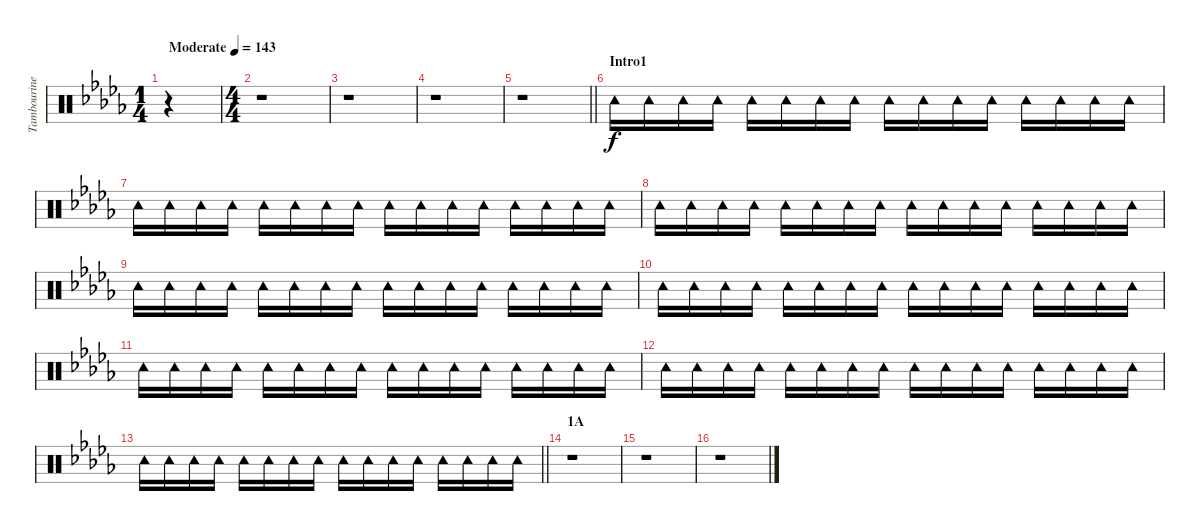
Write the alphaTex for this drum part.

\track ("Tambourine" "Tambourine") {instrument percussion}
\staff {score}
\articulation defaults
\ts (1 4)
\tempo (143 "Moderate")
\clef neutral
\ks db
r.4{dy f} |
\ts (4 4)
r.1 |
r.1 |
r.1 |
\barLineRight lightlight
r.1 |
\section ("" "Intro1")
"Tambourine (hit)".16 "Tambourine (hit)".16 "Tambourine (hit)".16 "Tambourine (hit)".16 "Tambourine (hit)".16 "Tambourine (hit)".16 "Tambourine (hit)".16 "Tambourine (hit)".16 "Tambourine (hit)".16 "Tambourine (hit)".16 "Tambourine (hit)".16 "Tambourine (hit)".16 "Tambourine (hit)".16 "Tambourine (hit)".16 "Tambourine (hit)".16 "Tambourine (hit)".16 |
"Tambourine (hit)".16 "Tambourine (hit)".16 "Tambourine (hit)".16 "Tambourine (hit)".16 "Tambourine (hit)".16 "Tambourine (hit)".16 "Tambourine (hit)".16 "Tambourine (hit)".16 "Tambourine (hit)".16 "Tambourine (hit)".16 "Tambourine (hit)".16 "Tambourine (hit)".16 "Tambourine (hit)".16 "Tambourine (hit)".16 "Tambourine (hit)".16 "Tambourine (hit)".16 |
"Tambourine (hit)".16 "Tambourine (hit)".16 "Tambourine (hit)".16 "Tambourine (hit)".16 "Tambourine (hit)".16 "Tambourine (hit)".16 "Tambourine (hit)".16 "Tambourine (hit)".16 "Tambourine (hit)".16 "Tambourine (hit)".16 "Tambourine (hit)".16 "Tambourine (hit)".16 "Tambourine (hit)".16 "Tambourine (hit)".16 "Tambourine (hit)".16 "Tambourine (hit)".16 |
"Tambourine (hit)".16 "Tambourine (hit)".16 "Tambourine (hit)".16 "Tambourine (hit)".16 "Tambourine (hit)".16 "Tambourine (hit)".16 "Tambourine (hit)".16 "Tambourine (hit)".16 "Tambourine (hit)".16 "Tambourine (hit)".16 "Tambourine (hit)".16 "Tambourine (hit)".16 "Tambourine (hit)".16 "Tambourine (hit)".16 "Tambourine (hit)".16 "Tambourine (hit)".16 |
"Tambourine (hit)".16 "Tambourine (hit)".16 "Tambourine (hit)".16 "Tambourine (hit)".16 "Tambourine (hit)".16 "Tambourine (hit)".16 "Tambourine (hit)".16 "Tambourine (hit)".16 "Tambourine (hit)".16 "Tambourine (hit)".16 "Tambourine (hit)".16 "Tambourine (hit)".16 "Tambourine (hit)".16 "Tambourine (hit)".16 "Tambourine (hit)".16 "Tambourine (hit)".16 |
"Tambourine (hit)".16 "Tambourine (hit)".16 "Tambourine (hit)".16 "Tambourine (hit)".16 "Tambourine (hit)".16 "Tambourine (hit)".16 "Tambourine (hit)".16 "Tambourine (hit)".16 "Tambourine (hit)".16 "Tambourine (hit)".16 "Tambourine (hit)".16 "Tambourine (hit)".16 "Tambourine (hit)".16 "Tambourine (hit)".16 "Tambourine (hit)".16 "Tambourine (hit)".16 |
"Tambourine (hit)".16 "Tambourine (hit)".16 "Tambourine (hit)".16 "Tambourine (hit)".16 "Tambourine (hit)".16 "Tambourine (hit)".16 "Tambourine (hit)".16 "Tambourine (hit)".16 "Tambourine (hit)".16 "Tambourine (hit)".16 "Tambourine (hit)".16 "Tambourine (hit)".16 "Tambourine (hit)".16 "Tambourine (hit)".16 "Tambourine (hit)".16 "Tambourine (hit)".16 |
\barLineRight lightlight "Tambourine (hit)".16 "Tambourine (hit)".16 "Tambourine (hit)".16 "Tambourine (hit)".16 "Tambourine (hit)".16 "Tambourine (hit)".16 "Tambourine (hit)".16 "Tambourine (hit)".16 "Tambourine (hit)".16 "Tambourine (hit)".16 "Tambourine (hit)".16 "Tambourine (hit)".16 "Tambourine (hit)".16 "Tambourine (hit)".16 "Tambourine (hit)".16 "Tambourine (hit)".16
|
\section ("" "1A")
r.1 |
r.1 |
r.1
